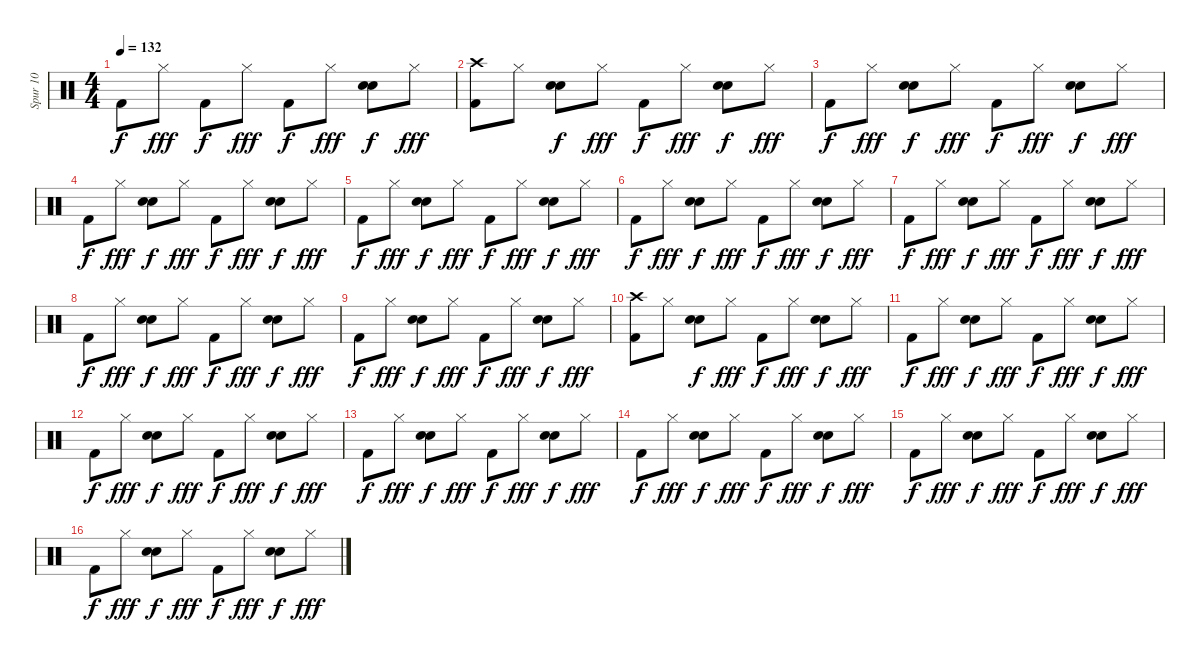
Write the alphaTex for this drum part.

\track ("Spur 10" "Spur 10") {instrument percussion}
\staff {score}
\articulation defaults
\ts (4 4)
\tempo 132
\clef neutral
\ks c "Kick (hit) 2".8{dy f} "Hi-Hat (closed)".8{dy fff} "Kick (hit) 2".8{dy f} "Hi-Hat (closed)".8{dy fff} "Kick (hit) 2".8{dy f} "Hi-Hat (closed)".8{dy fff}
("Electric Snare (hit)" "Hand Clap (hit)").8{dy f} "Hi-Hat (closed)".8{dy fff} |
("Kick (hit) 2" "Crash high (hit)").8 "Hi-Hat (closed)".8 ("Electric Snare (hit)" "Hand Clap (hit)").8{dy f} "Hi-Hat (closed)".8{dy fff} "Kick (hit) 2".8{dy f} "Hi-Hat (closed)".8{dy fff} ("Electric Snare (hit)" "Hand Clap (hit)").8{dy f} "Hi-Hat (closed)".8{dy fff} |
"Kick (hit) 2".8{dy f} "Hi-Hat (closed)".8{dy fff} ("Electric Snare (hit)" "Hand Clap (hit)").8{dy f} "Hi-Hat (closed)".8{dy fff} "Kick (hit) 2".8{dy f} "Hi-Hat (closed)".8{dy fff} ("Electric Snare (hit)" "Hand Clap (hit)").8{dy f} "Hi-Hat (closed)".8{dy fff} |
"Kick (hit) 2".8{dy f} "Hi-Hat (closed)".8{dy fff} ("Electric Snare (hit)" "Hand Clap (hit)").8{dy f} "Hi-Hat (closed)".8{dy fff} "Kick (hit) 2".8{dy f} "Hi-Hat (closed)".8{dy fff} ("Electric Snare (hit)" "Hand Clap (hit)").8{dy f} "Hi-Hat (closed)".8{dy fff} |
"Kick (hit) 2".8{dy f} "Hi-Hat (closed)".8{dy fff} ("Electric Snare (hit)" "Hand Clap (hit)").8{dy f} "Hi-Hat (closed)".8{dy fff} "Kick (hit) 2".8{dy f} "Hi-Hat (closed)".8{dy fff} ("Electric Snare (hit)" "Hand Clap (hit)").8{dy f} "Hi-Hat (closed)".8{dy fff} |
"Kick (hit) 2".8{dy f} "Hi-Hat (closed)".8{dy fff} ("Electric Snare (hit)" "Hand Clap (hit)").8{dy f} "Hi-Hat (closed)".8{dy fff} "Kick (hit) 2".8{dy f} "Hi-Hat (closed)".8{dy fff} ("Electric Snare (hit)" "Hand Clap (hit)").8{dy f} "Hi-Hat (closed)".8{dy fff} |
"Kick (hit) 2".8{dy f} "Hi-Hat (closed)".8{dy fff} ("Electric Snare (hit)" "Hand Clap (hit)").8{dy f} "Hi-Hat (closed)".8{dy fff} "Kick (hit) 2".8{dy f} "Hi-Hat (closed)".8{dy fff} ("Electric Snare (hit)" "Hand Clap (hit)").8{dy f} "Hi-Hat (closed)".8{dy fff} |
"Kick (hit) 2".8{dy f} "Hi-Hat (closed)".8{dy fff} ("Electric Snare (hit)" "Hand Clap (hit)").8{dy f} "Hi-Hat (closed)".8{dy fff} "Kick (hit) 2".8{dy f} "Hi-Hat (closed)".8{dy fff} ("Electric Snare (hit)" "Hand Clap (hit)").8{dy f} "Hi-Hat (closed)".8{dy fff} |
"Kick (hit) 2".8{dy f} "Hi-Hat (closed)".8{dy fff} ("Hand Clap (hit)" "Electric Snare (hit)").8{dy f} "Hi-Hat (closed)".8{dy fff} "Kick (hit) 2".8{dy f} "Hi-Hat (closed)".8{dy fff} ("Hand Clap (hit)" "Electric Snare (hit)").8{dy f} "Hi-Hat (closed)".8{dy fff} |
("Kick (hit) 2" "Crash high (hit)").8 "Hi-Hat (closed)".8 ("Electric Snare (hit)" "Hand Clap (hit)").8{dy f} "Hi-Hat (closed)".8{dy fff} "Kick (hit) 2".8{dy f} "Hi-Hat (closed)".8{dy fff} ("Electric Snare (hit)" "Hand Clap (hit)").8{dy f} "Hi-Hat (closed)".8{dy fff} |
"Kick (hit) 2".8{dy f} "Hi-Hat (closed)".8{dy fff} ("Electric Snare (hit)" "Hand Clap (hit)").8{dy f} "Hi-Hat (closed)".8{dy fff} "Kick (hit) 2".8{dy f} "Hi-Hat (closed)".8{dy fff} ("Electric Snare (hit)" "Hand Clap (hit)").8{dy f} "Hi-Hat (closed)".8{dy fff} |
"Kick (hit) 2".8{dy f} "Hi-Hat (closed)".8{dy fff} ("Electric Snare (hit)" "Hand Clap (hit)").8{dy f} "Hi-Hat (closed)".8{dy fff} "Kick (hit) 2".8{dy f} "Hi-Hat (closed)".8{dy fff} ("Electric Snare (hit)" "Hand Clap (hit)").8{dy f} "Hi-Hat (closed)".8{dy fff} |
"Kick (hit) 2".8{dy f} "Hi-Hat (closed)".8{dy fff} ("Electric Snare (hit)" "Hand Clap (hit)").8{dy f} "Hi-Hat (closed)".8{dy fff} "Kick (hit) 2".8{dy f} "Hi-Hat (closed)".8{dy fff} ("Electric Snare (hit)" "Hand Clap (hit)").8{dy f} "Hi-Hat (closed)".8{dy fff} |
"Kick (hit) 2".8{dy f} "Hi-Hat (closed)".8{dy fff} ("Electric Snare (hit)" "Hand Clap (hit)").8{dy f} "Hi-Hat (closed)".8{dy fff} "Kick (hit) 2".8{dy f} "Hi-Hat (closed)".8{dy fff} ("Electric Snare (hit)" "Hand Clap (hit)").8{dy f} "Hi-Hat (closed)".8{dy fff} |
"Kick (hit) 2".8{dy f} "Hi-Hat (closed)".8{dy fff} ("Electric Snare (hit)" "Hand Clap (hit)").8{dy f} "Hi-Hat (closed)".8{dy fff} "Kick (hit) 2".8{dy f} "Hi-Hat (closed)".8{dy fff} ("Electric Snare (hit)" "Hand Clap (hit)").8{dy f} "Hi-Hat (closed)".8{dy fff} |
"Kick (hit) 2".8{dy f} "Hi-Hat (closed)".8{dy fff} ("Electric Snare (hit)" "Hand Clap (hit)").8{dy f} "Hi-Hat (closed)".8{dy fff} "Kick (hit) 2".8{dy f} "Hi-Hat (closed)".8{dy fff} ("Electric Snare (hit)" "Hand Clap (hit)").8{dy f} "Hi-Hat (closed)".8{dy fff}
